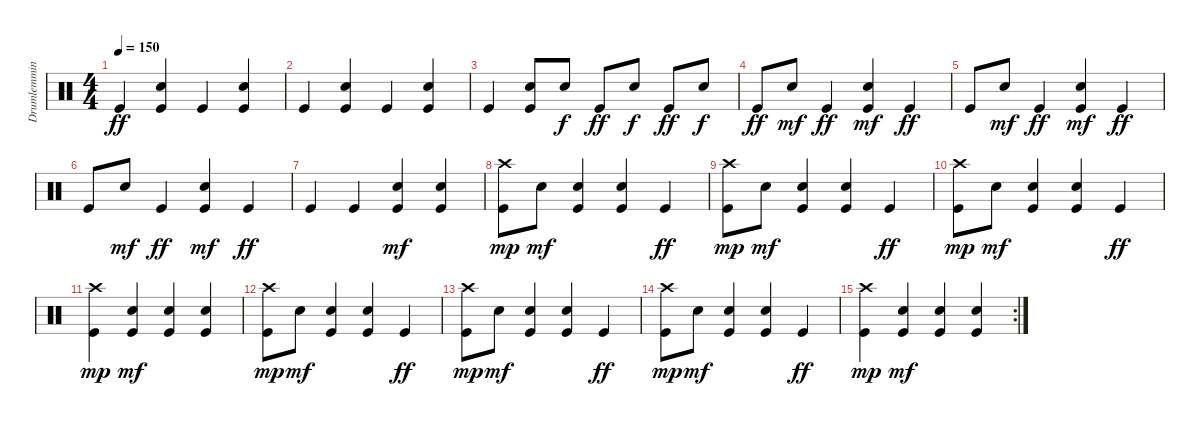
\track ("Drumlemming" "Drumlemmin") {instrument percussion}
\staff {score}
\articulation defaults
\ts (4 4)
\tempo 150
\clef neutral
\ks c "Kick (hit)".4{dy ff}
("Kick (hit)" "Snare (hit) 2").4 "Kick (hit)".4 ("Kick (hit)" "Snare (hit) 2").4 |
"Kick (hit)".4 ("Kick (hit)" "Snare (hit) 2").4 "Kick (hit)".4 ("Kick (hit)" "Snare (hit) 2").4 |
"Kick (hit)".4 ("Kick (hit)" "Snare (hit) 2").8 "Snare (hit) 2".8{dy f} "Kick (hit)".8{dy ff} "Snare (hit) 2".8{dy f} "Kick (hit)".8{dy ff} "Snare (hit) 2".8{dy f} |
"Kick (hit)".8{dy ff} "Snare (hit) 2".8{dy mf} "Kick (hit)".4{dy ff} ("Kick (hit)" "Snare (hit) 2").4{dy mf} "Kick (hit)".4{dy ff} |
"Kick (hit)".8 "Snare (hit) 2".8{dy mf} "Kick (hit)".4{dy ff} ("Kick (hit)" "Snare (hit) 2").4{dy mf} "Kick (hit)".4{dy ff} |
"Kick (hit)".8 "Snare (hit) 2".8{dy mf} "Kick (hit)".4{dy ff} ("Kick (hit)" "Snare (hit) 2").4{dy mf} "Kick (hit)".4{dy ff} |
"Kick (hit)".4 "Kick (hit)".4 ("Kick (hit)" "Snare (hit) 2").4{dy mf} ("Kick (hit)" "Snare (hit) 2").4 |
("Kick (hit)" "Crash high (hit)").8{dy mp} "Snare (hit) 2".8{dy mf} ("Kick (hit)" "Snare (hit) 2").4 ("Kick (hit)" "Snare (hit) 2").4 "Kick (hit)".4{dy ff} |
("Kick (hit)" "Crash high (hit)").8{dy mp} "Snare (hit) 2".8{dy mf} ("Kick (hit)" "Snare (hit) 2").4 ("Kick (hit)" "Snare (hit) 2").4 "Kick (hit)".4{dy ff} |
("Kick (hit)" "Crash high (hit)").8{dy mp} "Snare (hit) 2".8{dy mf} ("Kick (hit)" "Snare (hit) 2").4 ("Kick (hit)" "Snare (hit) 2").4 "Kick (hit)".4{dy ff} |
("Kick (hit)" "Crash high (hit)").4{dy mp} ("Kick (hit)" "Snare (hit) 2").4{dy mf} ("Kick (hit)" "Snare (hit) 2").4 ("Kick (hit)" "Snare (hit) 2").4 |
("Kick (hit)" "Crash high (hit)").8{dy mp} "Snare (hit) 2".8{dy mf} ("Kick (hit)" "Snare (hit) 2").4 ("Kick (hit)" "Snare (hit) 2").4 "Kick (hit)".4{dy ff} |
("Kick (hit)" "Crash high (hit)").8{dy mp} "Snare (hit) 2".8{dy mf} ("Kick (hit)" "Snare (hit) 2").4 ("Kick (hit)" "Snare (hit) 2").4 "Kick (hit)".4{dy ff} |
("Kick (hit)" "Crash high (hit)").8{dy mp} "Snare (hit) 2".8{dy mf} ("Kick (hit)" "Snare (hit) 2").4 ("Kick (hit)" "Snare (hit) 2").4 "Kick (hit)".4{dy ff} |
\rc 2
("Kick (hit)" "Crash high (hit)").4{dy mp} ("Kick (hit)" "Snare (hit) 2").4{dy mf} ("Kick (hit)" "Snare (hit) 2").4 ("Kick (hit)" "Snare (hit) 2").4
